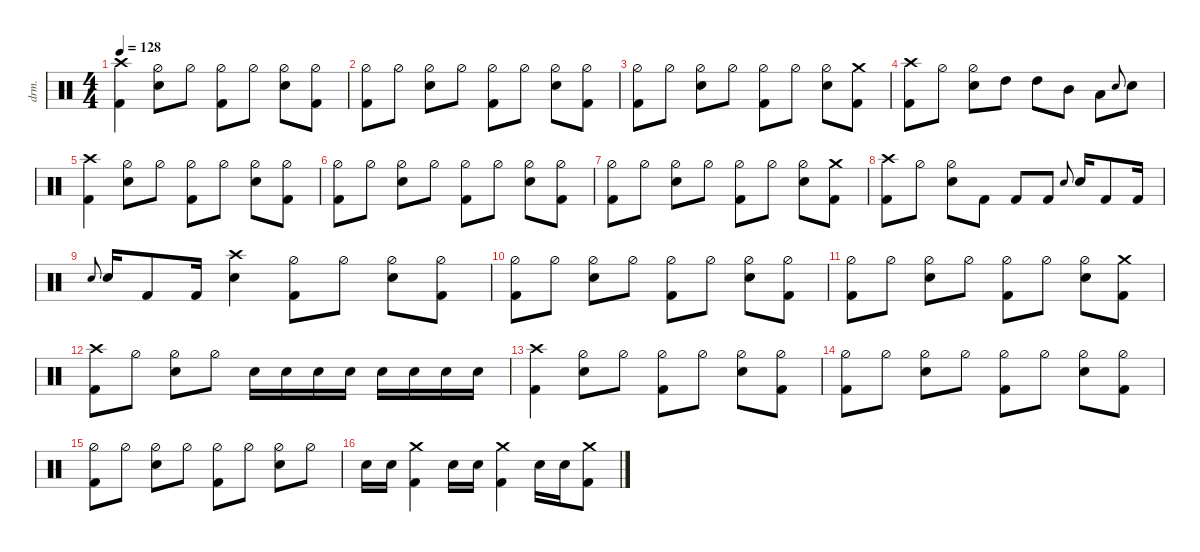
\defaultSystemsLayout 4
\hideDynamics
\bracketExtendMode nobrackets
\otherSystemsTrackNameOrientation horizontal
\track ("Drumkit" "drm.") {defaultSystemsLayout 4 multiBarRest instrument percussion}
\staff
\articulation defaults
\ts (4 4)
\tempo 128
\clef neutral
\ks c
("Kick (hit) 2" "Crash high (hit)").4{dy f beam Down} ("Hi-Hat (half)" "Snare (hit) 2").8{beam Down} "Hi-Hat (half)".8{beam Down} ("Kick (hit) 2" "Hi-Hat (half)").8{beam Down} "Hi-Hat (half)".8{beam Down} ("Hi-Hat (half)" "Snare (hit) 2").8{beam Down} ("Hi-Hat (half)" "Kick (hit) 2").8{beam Down} |
("Kick (hit) 2" "Hi-Hat (half)").8{beam Down} "Hi-Hat (half)".8{beam Down} ("Hi-Hat (half)" "Snare (hit) 2").8{beam Down} "Hi-Hat (half)".8{beam Down} ("Kick (hit) 2" "Hi-Hat (half)").8{beam Down} "Hi-Hat (half)".8{beam Down} ("Hi-Hat (half)" "Snare (hit) 2").8{beam Down} ("Hi-Hat (half)" "Kick (hit) 2").8{beam Down} |
("Kick (hit) 2" "Hi-Hat (half)").8{beam Down} "Hi-Hat (half)".8{beam Down} ("Hi-Hat (half)" "Snare (hit) 2").8{beam Down} "Hi-Hat (half)".8{beam Down} ("Kick (hit) 2" "Hi-Hat (half)").8{beam Down} "Hi-Hat (half)".8{beam Down} ("Hi-Hat (half)" "Snare (hit) 2").8{beam Down} ("Kick (hit) 2" "Crash medium (hit)").8{beam Down} |
("Kick (hit) 2" "Crash high (hit)").8{beam Down} "Hi-Hat (half)".8{beam Down} ("Hi-Hat (half)" "Snare (hit) 2").8{beam Down} "High Tom (hit)".8{dy fff beam Down} "High Tom (hit)".8{beam Down} "Mid Tom (hit)".8{beam Down} "Low Tom (hit)".8{beam Down} "Snare (hit) 2".8{gr onbeat dy f beam Up} "Snare (hit) 2".8{beam Down} |
("Kick (hit) 2" "Crash high (hit)").4{beam Down} ("Hi-Hat (half)" "Snare (hit) 2").8{beam Down} "Hi-Hat (half)".8{beam Down} ("Kick (hit) 2" "Hi-Hat (half)").8{beam Down} "Hi-Hat (half)".8{beam Down} ("Hi-Hat (half)" "Snare (hit) 2").8{beam Down} ("Hi-Hat (half)" "Kick (hit) 2").8{beam Down} |
("Kick (hit) 2" "Hi-Hat (half)").8{beam Down} "Hi-Hat (half)".8{beam Down} ("Hi-Hat (half)" "Snare (hit) 2").8{beam Down} "Hi-Hat (half)".8{beam Down} ("Kick (hit) 2" "Hi-Hat (half)").8{beam Down} "Hi-Hat (half)".8{beam Down} ("Hi-Hat (half)" "Snare (hit) 2").8{beam Down} ("Hi-Hat (half)" "Kick (hit) 2").8{beam Down} |
("Kick (hit) 2" "Hi-Hat (half)").8{beam Down} "Hi-Hat (half)".8{beam Down} ("Hi-Hat (half)" "Snare (hit) 2").8{beam Down} "Hi-Hat (half)".8{beam Down} ("Kick (hit) 2" "Hi-Hat (half)").8{beam Down} "Hi-Hat (half)".8{beam Down} ("Hi-Hat (half)" "Snare (hit) 2").8{beam Down} ("Kick (hit) 2" "Crash medium (hit)").8{beam Down} |
("Kick (hit) 2" "Crash high (hit)").8{beam Down} "Hi-Hat (half)".8{beam Down} ("Hi-Hat (half)" "Snare (hit) 2").8{beam Down} "Kick (hit) 2".8{beam Down} "Kick (hit) 2".8{beam Up} "Kick (hit) 2".8{beam Up} "Snare (hit) 2".8{gr onbeat beam Up} "Snare (hit) 2".16{beam Up} "Kick (hit) 2".8{beam Up} "Kick (hit) 2".16{beam Up} |
"Snare (hit) 2".8{gr onbeat beam Up} "Snare (hit) 2".16{beam Up} "Kick (hit) 2".8{beam Up} "Kick (hit) 2".16{beam Up} ("Snare (hit) 2" "Crash high (hit)").4{beam Down} ("Kick (hit) 2" "Hi-Hat (half)").8{beam Down} "Hi-Hat (half)".8{beam Down} ("Hi-Hat (half)" "Snare (hit) 2").8{beam Down} ("Hi-Hat (half)" "Kick (hit) 2").8{beam Down} |
("Kick (hit) 2" "Hi-Hat (half)").8{beam Down} "Hi-Hat (half)".8{beam Down} ("Hi-Hat (half)" "Snare (hit) 2").8{beam Down} "Hi-Hat (half)".8{beam Down} ("Kick (hit) 2" "Hi-Hat (half)").8{beam Down} "Hi-Hat (half)".8{beam Down} ("Hi-Hat (half)" "Snare (hit) 2").8{beam Down} ("Hi-Hat (half)" "Kick (hit) 2").8{beam Down} |
("Kick (hit) 2" "Hi-Hat (half)").8{beam Down} "Hi-Hat (half)".8{beam Down} ("Hi-Hat (half)" "Snare (hit) 2").8{beam Down} "Hi-Hat (half)".8{beam Down} ("Kick (hit) 2" "Hi-Hat (half)").8{beam Down} "Hi-Hat (half)".8{beam Down} ("Hi-Hat (half)" "Snare (hit) 2").8{beam Down} ("Kick (hit) 2" "Crash medium (hit)").8{beam Down} |
("Kick (hit) 2" "Crash high (hit)").8{beam Down} "Hi-Hat (half)".8{beam Down} ("Hi-Hat (half)" "Snare (hit) 2").8{beam Down} "Hi-Hat (half)".8{beam Down} "Snare (hit) 2".16{beam Down} "Snare (hit) 2".16{beam Down} "Snare (hit) 2".16{beam Down} "Snare (hit) 2".16{beam Down} "Snare (hit) 2".16{beam Down} "Snare (hit) 2".16{beam Down} "Snare (hit) 2".16{beam Down} "Snare (hit) 2".16{beam Down} |
("Kick (hit) 2" "Crash high (hit)").4{beam Down} ("Hi-Hat (half)" "Snare (hit) 2").8{beam Down} "Hi-Hat (half)".8{beam Down} ("Kick (hit) 2" "Hi-Hat (half)").8{beam Down} "Hi-Hat (half)".8{beam Down} ("Hi-Hat (half)" "Snare (hit) 2").8{beam Down} ("Hi-Hat (half)" "Kick (hit) 2").8{beam Down} |
("Kick (hit) 2" "Hi-Hat (half)").8{beam Down} "Hi-Hat (half)".8{beam Down} ("Hi-Hat (half)" "Snare (hit) 2").8{beam Down} "Hi-Hat (half)".8{beam Down} ("Kick (hit) 2" "Hi-Hat (half)").8{beam Down} "Hi-Hat (half)".8{beam Down} ("Hi-Hat (half)" "Snare (hit) 2").8{beam Down} ("Hi-Hat (half)" "Kick (hit) 2").8{beam Down} |
("Kick (hit) 2" "Hi-Hat (half)").8{beam Down} "Hi-Hat (half)".8{beam Down} ("Hi-Hat (half)" "Snare (hit) 2").8{beam Down} "Hi-Hat (half)".8{beam Down} ("Kick (hit) 2" "Hi-Hat (half)").8{beam Down} "Hi-Hat (half)".8{beam Down} ("Hi-Hat (half)" "Snare (hit) 2").8{beam Down} "Hi-Hat (half)".8{beam Down} |
"Snare (hit) 2".16{beam Down} "Snare (hit) 2".16{beam Down} ("Kick (hit) 2" "Crash medium (hit)").4{beam Down} "Snare (hit) 2".16{beam Down} "Snare (hit) 2".16{beam Down} ("Kick (hit) 2" "Crash medium (hit)").4{beam Down} "Snare (hit) 2".16{beam Down} "Snare (hit) 2".16{beam Down} ("Kick (hit) 2" "Crash medium (hit)").8{beam Down}
